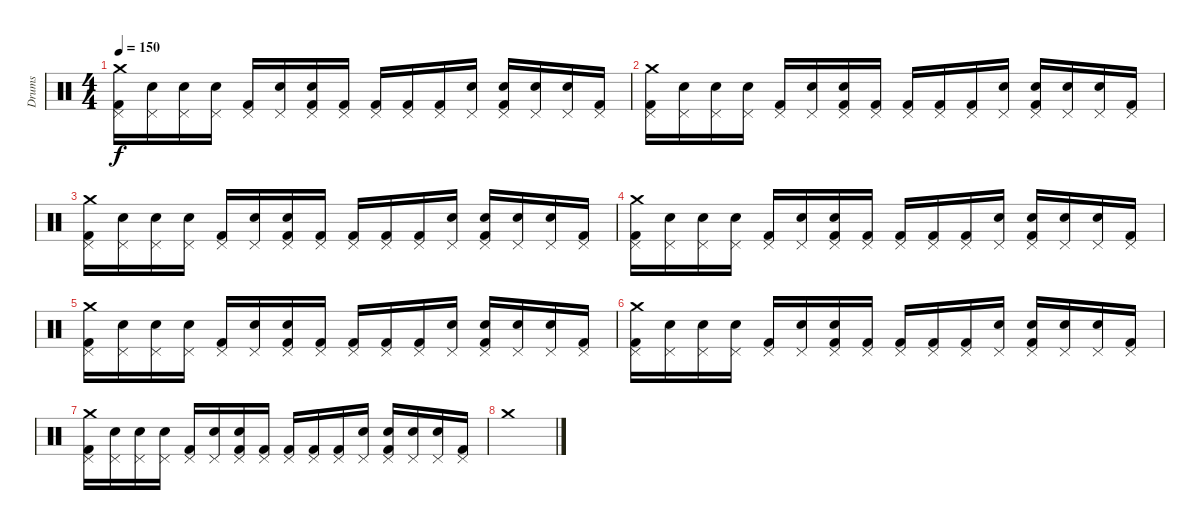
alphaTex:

\track ("Drums" "Drums") {instrument percussion}
\staff {score}
\articulation defaults
\ts (4 4)
\tempo 150
\clef neutral
\ks c
("Kick (hit) 2" "Pedal Hi-Hat (hit)" "Crash medium (hit)").16{dy f} ("Snare (hit)" "Pedal Hi-Hat (hit)").16 ("Snare (hit)" "Pedal Hi-Hat (hit)").16 ("Snare (hit)" "Pedal Hi-Hat (hit)").16 ("Kick (hit) 2" "Pedal Hi-Hat (hit)").16 ("Snare (hit)" "Pedal Hi-Hat (hit)").16 ("Kick (hit) 2" "Pedal Hi-Hat (hit)" "Snare (hit) 2").16 ("Kick (hit) 2" "Pedal Hi-Hat (hit)").16 ("Kick (hit) 2" "Pedal Hi-Hat (hit)").16 ("Kick (hit) 2" "Pedal Hi-Hat (hit)").16 ("Kick (hit) 2" "Pedal Hi-Hat (hit)").16 ("Snare (hit)" "Pedal Hi-Hat (hit)").16 ("Kick (hit) 2" "Pedal Hi-Hat (hit)" "Snare (hit) 2").16 ("Snare (hit)" "Pedal Hi-Hat (hit)").16 ("Snare (hit)" "Pedal Hi-Hat (hit)").16 ("Kick (hit) 2" "Pedal Hi-Hat (hit)").16 |
("Kick (hit) 2" "Pedal Hi-Hat (hit)" "Crash medium (hit)").16 ("Snare (hit)" "Pedal Hi-Hat (hit)").16 ("Snare (hit)" "Pedal Hi-Hat (hit)").16 ("Snare (hit)" "Pedal Hi-Hat (hit)").16 ("Kick (hit) 2" "Pedal Hi-Hat (hit)").16 ("Snare (hit)" "Pedal Hi-Hat (hit)").16 ("Kick (hit) 2" "Pedal Hi-Hat (hit)" "Snare (hit) 2").16 ("Kick (hit) 2" "Pedal Hi-Hat (hit)").16 ("Kick (hit) 2" "Pedal Hi-Hat (hit)").16 ("Kick (hit) 2" "Pedal Hi-Hat (hit)").16 ("Kick (hit) 2" "Pedal Hi-Hat (hit)").16 ("Snare (hit)" "Pedal Hi-Hat (hit)").16 ("Kick (hit) 2" "Pedal Hi-Hat (hit)" "Snare (hit) 2").16 ("Snare (hit)" "Pedal Hi-Hat (hit)").16 ("Snare (hit)" "Pedal Hi-Hat (hit)").16 ("Kick (hit) 2" "Pedal Hi-Hat (hit)").16 |
("Kick (hit) 2" "Pedal Hi-Hat (hit)" "Crash medium (hit)").16 ("Snare (hit)" "Pedal Hi-Hat (hit)").16 ("Snare (hit)" "Pedal Hi-Hat (hit)").16 ("Snare (hit)" "Pedal Hi-Hat (hit)").16 ("Kick (hit) 2" "Pedal Hi-Hat (hit)").16 ("Snare (hit)" "Pedal Hi-Hat (hit)").16 ("Kick (hit) 2" "Pedal Hi-Hat (hit)" "Snare (hit) 2").16 ("Kick (hit) 2" "Pedal Hi-Hat (hit)").16 ("Kick (hit) 2" "Pedal Hi-Hat (hit)").16 ("Kick (hit) 2" "Pedal Hi-Hat (hit)").16 ("Kick (hit) 2" "Pedal Hi-Hat (hit)").16 ("Snare (hit)" "Pedal Hi-Hat (hit)").16 ("Kick (hit) 2" "Pedal Hi-Hat (hit)" "Snare (hit) 2").16 ("Snare (hit)" "Pedal Hi-Hat (hit)").16 ("Snare (hit)" "Pedal Hi-Hat (hit)").16 ("Kick (hit) 2" "Pedal Hi-Hat (hit)").16 |
("Kick (hit) 2" "Pedal Hi-Hat (hit)" "Crash medium (hit)").16 ("Snare (hit)" "Pedal Hi-Hat (hit)").16 ("Snare (hit)" "Pedal Hi-Hat (hit)").16 ("Snare (hit)" "Pedal Hi-Hat (hit)").16 ("Kick (hit) 2" "Pedal Hi-Hat (hit)").16 ("Snare (hit)" "Pedal Hi-Hat (hit)").16 ("Kick (hit) 2" "Pedal Hi-Hat (hit)" "Snare (hit) 2").16 ("Kick (hit) 2" "Pedal Hi-Hat (hit)").16 ("Kick (hit) 2" "Pedal Hi-Hat (hit)").16 ("Kick (hit) 2" "Pedal Hi-Hat (hit)").16 ("Kick (hit) 2" "Pedal Hi-Hat (hit)").16 ("Snare (hit)" "Pedal Hi-Hat (hit)").16 ("Kick (hit) 2" "Pedal Hi-Hat (hit)" "Snare (hit) 2").16 ("Snare (hit)" "Pedal Hi-Hat (hit)").16 ("Snare (hit)" "Pedal Hi-Hat (hit)").16 ("Kick (hit) 2" "Pedal Hi-Hat (hit)").16 |
("Kick (hit) 2" "Pedal Hi-Hat (hit)" "Crash medium (hit)").16 ("Snare (hit)" "Pedal Hi-Hat (hit)").16 ("Snare (hit)" "Pedal Hi-Hat (hit)").16 ("Snare (hit)" "Pedal Hi-Hat (hit)").16 ("Kick (hit) 2" "Pedal Hi-Hat (hit)").16 ("Snare (hit)" "Pedal Hi-Hat (hit)").16 ("Kick (hit) 2" "Pedal Hi-Hat (hit)" "Snare (hit) 2").16 ("Kick (hit) 2" "Pedal Hi-Hat (hit)").16 ("Kick (hit) 2" "Pedal Hi-Hat (hit)").16 ("Kick (hit) 2" "Pedal Hi-Hat (hit)").16 ("Kick (hit) 2" "Pedal Hi-Hat (hit)").16 ("Snare (hit)" "Pedal Hi-Hat (hit)").16 ("Kick (hit) 2" "Pedal Hi-Hat (hit)" "Snare (hit) 2").16 ("Snare (hit)" "Pedal Hi-Hat (hit)").16 ("Snare (hit)" "Pedal Hi-Hat (hit)").16 ("Kick (hit) 2" "Pedal Hi-Hat (hit)").16 |
("Kick (hit) 2" "Pedal Hi-Hat (hit)" "Crash medium (hit)").16 ("Snare (hit)" "Pedal Hi-Hat (hit)").16 ("Snare (hit)" "Pedal Hi-Hat (hit)").16 ("Snare (hit)" "Pedal Hi-Hat (hit)").16 ("Kick (hit) 2" "Pedal Hi-Hat (hit)").16 ("Snare (hit)" "Pedal Hi-Hat (hit)").16 ("Kick (hit) 2" "Pedal Hi-Hat (hit)" "Snare (hit) 2").16 ("Kick (hit) 2" "Pedal Hi-Hat (hit)").16 ("Kick (hit) 2" "Pedal Hi-Hat (hit)").16 ("Kick (hit) 2" "Pedal Hi-Hat (hit)").16 ("Kick (hit) 2" "Pedal Hi-Hat (hit)").16 ("Snare (hit)" "Pedal Hi-Hat (hit)").16 ("Kick (hit) 2" "Pedal Hi-Hat (hit)" "Snare (hit) 2").16 ("Snare (hit)" "Pedal Hi-Hat (hit)").16 ("Snare (hit)" "Pedal Hi-Hat (hit)").16 ("Kick (hit) 2" "Pedal Hi-Hat (hit)").16 |
("Kick (hit) 2" "Pedal Hi-Hat (hit)" "Crash medium (hit)").16 ("Snare (hit)" "Pedal Hi-Hat (hit)").16 ("Snare (hit)" "Pedal Hi-Hat (hit)").16 ("Snare (hit)" "Pedal Hi-Hat (hit)").16 ("Kick (hit) 2" "Pedal Hi-Hat (hit)").16 ("Snare (hit)" "Pedal Hi-Hat (hit)").16 ("Kick (hit) 2" "Pedal Hi-Hat (hit)" "Snare (hit) 2").16 ("Kick (hit) 2" "Pedal Hi-Hat (hit)").16 ("Kick (hit) 2" "Pedal Hi-Hat (hit)").16 ("Kick (hit) 2" "Pedal Hi-Hat (hit)").16 ("Kick (hit) 2" "Pedal Hi-Hat (hit)").16 ("Snare (hit)" "Pedal Hi-Hat (hit)").16 ("Kick (hit) 2" "Pedal Hi-Hat (hit)" "Snare (hit) 2").16 ("Snare (hit)" "Pedal Hi-Hat (hit)").16 ("Snare (hit)" "Pedal Hi-Hat (hit)").16 ("Kick (hit) 2" "Pedal Hi-Hat (hit)").16 |
"Crash medium (hit)".1
